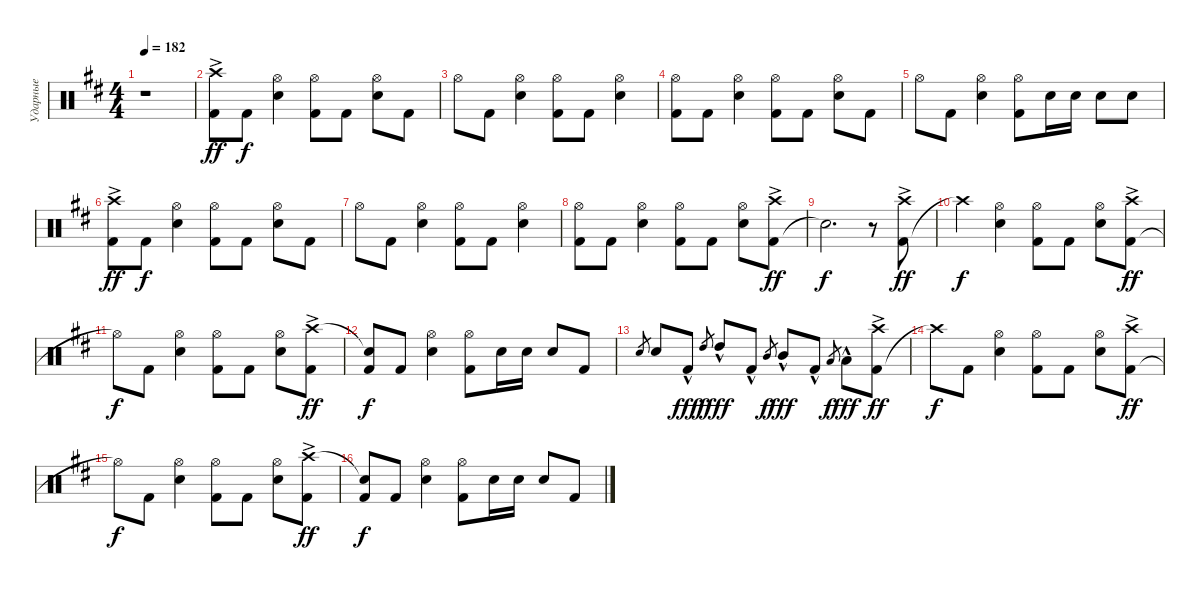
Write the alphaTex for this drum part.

\track ("Ударные" "Ударные") {instrument percussion}
\staff {score}
\articulation defaults
\ts (4 4)
\tempo 182
\clef neutral
\ks d
r.1{dy fff} |
("Kick (hit) 2" "Crash high (hit)"{ac}).8{dy ff} "Kick (hit) 2".8{dy f} ("Snare (hit) 2" "Hi-Hat (open)").4 ("Kick (hit) 2" "Hi-Hat (open)").8 "Kick (hit) 2".8 ("Snare (hit) 2" "Hi-Hat (open)").8 "Kick (hit) 2".8 |
"Hi-Hat (open)".8 "Kick (hit) 2".8 ("Snare (hit) 2" "Hi-Hat (open)").4 ("Kick (hit) 2" "Hi-Hat (open)").8 "Kick (hit) 2".8 ("Snare (hit) 2" "Hi-Hat (open)").4 |
("Kick (hit) 2" "Hi-Hat (open)").8 "Kick (hit) 2".8 ("Snare (hit) 2" "Hi-Hat (open)").4 ("Kick (hit) 2" "Hi-Hat (open)").8 "Kick (hit) 2".8 ("Snare (hit) 2" "Hi-Hat (open)").8 "Kick (hit) 2".8 |
"Hi-Hat (open)".8 "Kick (hit) 2".8 ("Snare (hit) 2" "Hi-Hat (open)").4 ("Kick (hit) 2" "Hi-Hat (open)").8 "Snare (hit) 2".16 "Snare (hit) 2".16 "Snare (hit) 2".8 "Snare (hit) 2".8 |
("Kick (hit) 2" "Crash high (hit)"{ac}).8{dy ff} "Kick (hit) 2".8{dy f} ("Snare (hit) 2" "Hi-Hat (open)").4 ("Kick (hit) 2" "Hi-Hat (open)").8 "Kick (hit) 2".8 ("Snare (hit) 2" "Hi-Hat (open)").8 "Kick (hit) 2".8 |
"Hi-Hat (open)".8 "Kick (hit) 2".8 ("Snare (hit) 2" "Hi-Hat (open)").4 ("Kick (hit) 2" "Hi-Hat (open)").8 "Kick (hit) 2".8 ("Snare (hit) 2" "Hi-Hat (open)").4 |
("Kick (hit) 2" "Hi-Hat (open)").8 "Kick (hit) 2".8 ("Snare (hit) 2" "Hi-Hat (open)").4 ("Kick (hit) 2" "Hi-Hat (open)").8 "Kick (hit) 2".8 ("Snare (hit) 2" "Hi-Hat (open)").8 ("Kick (hit) 2" "Crash high (hit)"{ac}).8{dy ff} |
"Snare (hit)"{t}.2{d dy f} r.8 ("Kick (hit) 2" "Crash high (hit)"{ac}).8{dy ff} |
"Crash high (hit)"{t}.4{dy f} ("Snare (hit) 2" "Hi-Hat (open)").4 ("Kick (hit) 2" "Hi-Hat (open)").8 "Kick (hit) 2".8 ("Snare (hit) 2" "Hi-Hat (open)").8 ("Kick (hit) 2" "Crash high (hit)"{ac}).8{dy ff} |
"Hi-Hat (open)"{t}.8{dy f} "Kick (hit) 2".8 ("Snare (hit) 2" "Hi-Hat (open)").4 ("Kick (hit) 2" "Hi-Hat (open)").8 "Kick (hit) 2".8 ("Snare (hit) 2" "Hi-Hat (open)").8 ("Kick (hit) 2" "Crash high (hit)"{ac}).8{dy ff} |
("Kick (hit) 2" "Snare (hit)"{t}).8{dy f} "Kick (hit) 2".8 ("Snare (hit) 2" "Hi-Hat (open)").4 ("Kick (hit) 2" "Hi-Hat (open)").8 "Snare (hit) 2".16 "Snare (hit) 2".16 "Snare (hit) 2".8 "Kick (hit) 2".8 |
"Snare (hit) 2".8{gr} "Snare (hit) 2".8 "Kick (hit) 2"{hac}.8{dy fff} "High Tom (hit)".8{gr dy f} "High Tom (hit)"{hac}.8{dy fff} "Kick (hit) 2"{hac}.8 "Mid Tom (hit)".8{gr dy f} "Mid Tom (hit)"{hac}.8{dy fff} "Kick (hit) 2"{hac}.8 "Low Tom (hit)".8{gr dy f} "Low Tom (hit)"{hac}.8{dy fff} ("Kick (hit) 2" "Crash high (hit)"{ac}).8{dy ff} |
"Crash high (hit)"{t}.8{dy f} "Kick (hit) 2".8 ("Snare (hit) 2" "Hi-Hat (open)").4 ("Kick (hit) 2" "Hi-Hat (open)").8 "Kick (hit) 2".8 ("Snare (hit) 2" "Hi-Hat (open)").8 ("Kick (hit) 2" "Crash high (hit)"{ac}).8{dy ff} |
"Hi-Hat (open)"{t}.8{dy f} "Kick (hit) 2".8 ("Snare (hit) 2" "Hi-Hat (open)").4 ("Kick (hit) 2" "Hi-Hat (open)").8 "Kick (hit) 2".8 ("Snare (hit) 2" "Hi-Hat (open)").8 ("Kick (hit) 2" "Crash high (hit)"{ac}).8{dy ff} |
("Kick (hit) 2" "Snare (hit)"{t}).8{dy f} "Kick (hit) 2".8 ("Snare (hit) 2" "Hi-Hat (open)").4 ("Kick (hit) 2" "Hi-Hat (open)").8 "Snare (hit) 2".16 "Snare (hit) 2".16 "Snare (hit) 2".8 "Kick (hit) 2".8
